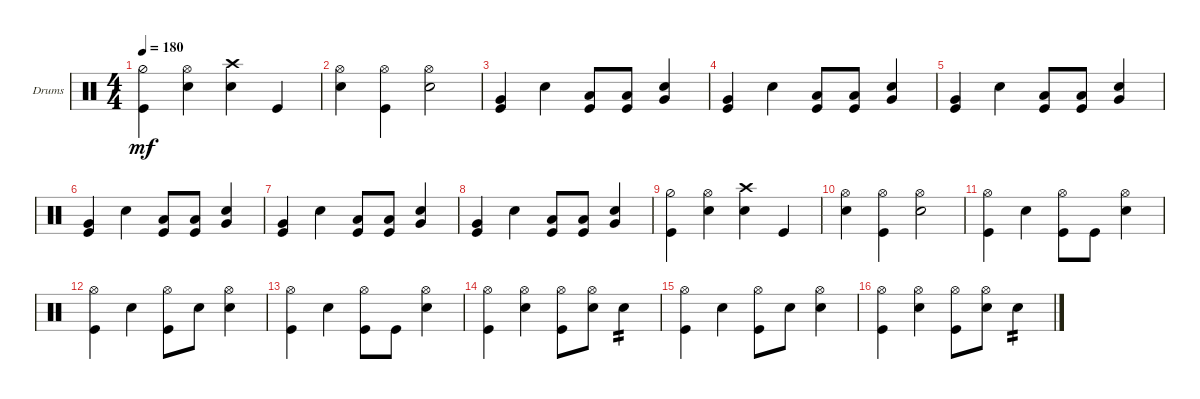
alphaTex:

\bracketExtendMode groupsimilarinstruments
\firstSystemTrackNameOrientation horizontal
\otherSystemsTrackNameOrientation horizontal
\track ("Drumkit" "Drums") {instrument percussion}
\staff {score}
\articulation defaults
\ts (4 4)
\tempo 180
\clef neutral
\scale
0.333333
\ks c
("Kick (hit)" "Hi-Hat (half)").4{dy mf} ("Snare (hit) 2" "Hi-Hat (open)").4 ("Snare (hit) 2" "Crash high (hit)").4 "Kick (hit)".4 |
\scale
0.333333 ("Snare (hit) 2" "Hi-Hat (open)").4 ("Kick (hit)" "Hi-Hat (open)").4 ("Snare (hit) 2" "Hi-Hat (open)").2 |
\scale
0.333333 ("Kick (hit)" "Very Low Tom (hit)").4 "Snare (hit) 2".4 ("Kick (hit)" "Low Tom (hit)").8 ("Kick (hit)" "Low Tom (hit)").8 ("Snare (hit) 2" "Very Low Tom (hit)").4 |
\scale
0.333333 ("Kick (hit)" "Very Low Tom (hit)").4 "Snare (hit) 2".4 ("Kick (hit)" "Low Tom (hit)").8 ("Kick (hit)" "Low Tom (hit)").8 ("Snare (hit) 2" "Very Low Tom (hit)").4 |
\scale
0.333333 ("Kick (hit)" "Very Low Tom (hit)").4 "Snare (hit) 2".4 ("Kick (hit)" "Low Tom (hit)").8 ("Kick (hit)" "Low Tom (hit)").8 ("Snare (hit) 2" "Very Low Tom (hit)").4 |
\scale
0.333333 ("Kick (hit)" "Very Low Tom (hit)").4 "Snare (hit) 2".4 ("Kick (hit)" "Low Tom (hit)").8 ("Kick (hit)" "Low Tom (hit)").8 ("Snare (hit) 2" "Very Low Tom (hit)").4 |
\scale
0.333333 ("Kick (hit)" "Very Low Tom (hit)").4 "Snare (hit) 2".4 ("Kick (hit)" "Low Tom (hit)").8 ("Kick (hit)" "Low Tom (hit)").8 ("Snare (hit) 2" "Very Low Tom (hit)").4 |
\scale
0.333333 ("Kick (hit)" "Very Low Tom (hit)").4 "Snare (hit) 2".4 ("Kick (hit)" "Low Tom (hit)").8 ("Kick (hit)" "Low Tom (hit)").8 ("Snare (hit) 2" "Very Low Tom (hit)").4 |
\scale
0.333333 ("Kick (hit)" "Hi-Hat (half)").4 ("Snare (hit) 2" "Hi-Hat (open)").4 ("Snare (hit) 2" "Crash high (hit)").4 "Kick (hit)".4 |
\scale
0.333333 ("Snare (hit) 2" "Hi-Hat (open)").4 ("Kick (hit)" "Hi-Hat (open)").4 ("Snare (hit) 2" "Hi-Hat (open)").2 |
\scale
0.333333 ("Kick (hit)" "Hi-Hat (open)").4 "Snare (hit) 2".4 ("Kick (hit)" "Hi-Hat (open)").8 "Kick (hit)".8 ("Snare (hit) 2" "Hi-Hat (open)").4 |
\scale
0.333333 ("Kick (hit)" "Hi-Hat (open)").4 "Snare (hit) 2".4 ("Kick (hit)" "Hi-Hat (open)").8 "Snare (hit) 2".8 ("Snare (hit) 2" "Hi-Hat (open)").4 |
\scale
0.333333 ("Kick (hit)" "Hi-Hat (open)").4 "Snare (hit) 2".4 ("Kick (hit)" "Hi-Hat (open)").8 "Kick (hit)".8 ("Snare (hit) 2" "Hi-Hat (open)").4 |
\scale
0.333333 ("Kick (hit)" "Hi-Hat (open)").4 ("Snare (hit) 2" "Hi-Hat (open)").4 ("Kick (hit)" "Hi-Hat (open)").8 ("Snare (hit) 2" "Hi-Hat (open)").8 "Snare (hit) 2".4{tp 2} |
\scale
0.333333 ("Kick (hit)" "Hi-Hat (open)").4 "Snare (hit) 2".4 ("Kick (hit)" "Hi-Hat (open)").8 "Snare (hit) 2".8 ("Snare (hit) 2" "Hi-Hat (open)").4 |
\scale
0.333333 ("Kick (hit)" "Hi-Hat (open)").4 ("Snare (hit) 2" "Hi-Hat (open)").4 ("Kick (hit)" "Hi-Hat (open)").8 ("Snare (hit) 2" "Hi-Hat (open)").8 "Snare (hit) 2".4{tp 2}
